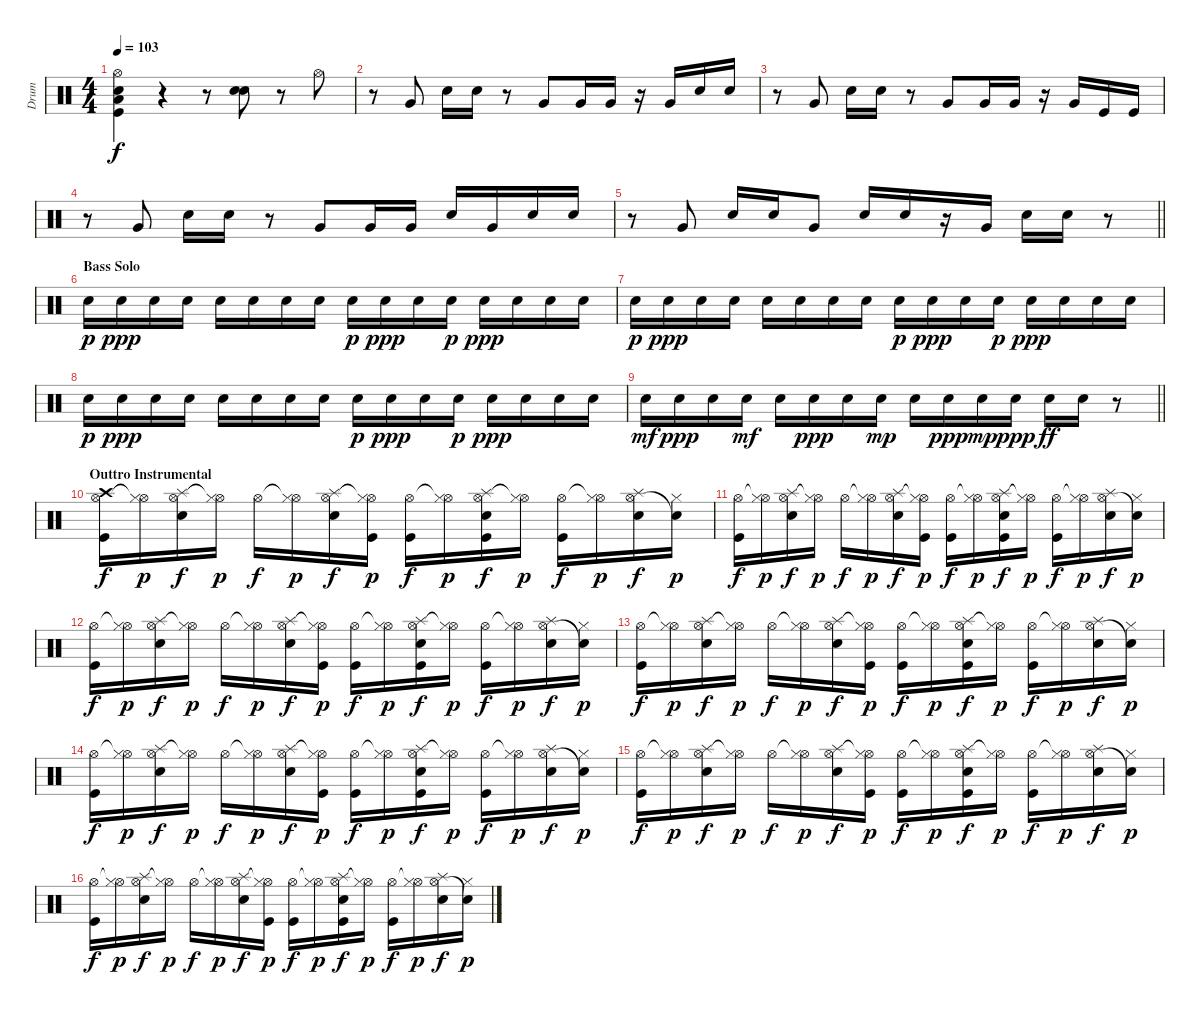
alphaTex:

\track ("Drum" "Drum") {instrument percussion}
\staff {score}
\articulation defaults
\ts (4 4)
\tempo 103
\clef neutral
\ks c
("Hi-Hat (open)" "Snare (hit) 2" "Low Tom (hit)" "Kick (hit)").4{dy f} r.4 r.8 ("Snare (hit) 2" "Electric Snare (hit)").8 r.8 "Hi-Hat (open)".8 |
r.8 "Very Low Tom (hit)".8 "Snare (hit) 2".16 "Snare (hit) 2".16 r.8 "Very Low Tom (hit)".8 "Very Low Tom (hit)".16 "Very Low Tom (hit)".16 r.16 "Very Low Tom (hit)".16 "Snare (hit) 2".16 "Snare (hit) 2".16 |
r.8 "Very Low Tom (hit)".8 "Snare (hit) 2".16 "Snare (hit) 2".16 r.8 "Very Low Tom (hit)".8 "Very Low Tom (hit)".16 "Very Low Tom (hit)".16 r.16 "Very Low Tom (hit)".16 "Kick (hit)".16 "Kick (hit)".16 |
r.8 "Very Low Tom (hit)".8 "Snare (hit) 2".16 "Snare (hit) 2".16 r.8 "Very Low Tom (hit)".8 "Very Low Tom (hit)".16 "Very Low Tom (hit)".16 "Snare (hit) 2".16 "Very Low Tom (hit)".16 "Snare (hit) 2".16 "Snare (hit) 2".16 |
\barLineRight lightlight
r.8 "Very Low Tom (hit)".8 "Snare (hit) 2".16 "Snare (hit) 2".16 "Very Low Tom (hit)".8 "Snare (hit) 2".16 "Snare (hit) 2".16 r.16 "Very Low Tom (hit)".16 "Snare (hit) 2".16 "Snare (hit) 2".16 r.8 |
\section ("" "Bass Solo")
"Snare (hit) 2".16{dy p} "Snare (hit) 2".16{dy ppp} "Snare (hit) 2".16 "Snare (hit) 2".16 "Snare (hit) 2".16 "Snare (hit) 2".16 "Snare (hit) 2".16 "Snare (hit) 2".16 "Snare (hit) 2".16{dy p} "Snare (hit) 2".16{dy ppp} "Snare (hit) 2".16 "Snare (hit) 2".16{dy p} "Snare (hit) 2".16{dy ppp} "Snare (hit) 2".16 "Snare (hit) 2".16 "Snare (hit) 2".16 |
"Snare (hit) 2".16{dy p} "Snare (hit) 2".16{dy ppp} "Snare (hit) 2".16 "Snare (hit) 2".16 "Snare (hit) 2".16 "Snare (hit) 2".16 "Snare (hit) 2".16 "Snare (hit) 2".16 "Snare (hit) 2".16{dy p} "Snare (hit) 2".16{dy ppp} "Snare (hit) 2".16 "Snare (hit) 2".16{dy p} "Snare (hit) 2".16{dy ppp} "Snare (hit) 2".16 "Snare (hit) 2".16 "Snare (hit) 2".16 |
"Snare (hit) 2".16{dy p} "Snare (hit) 2".16{dy ppp} "Snare (hit) 2".16 "Snare (hit) 2".16 "Snare (hit) 2".16 "Snare (hit) 2".16 "Snare (hit) 2".16 "Snare (hit) 2".16 "Snare (hit) 2".16{dy p} "Snare (hit) 2".16{dy ppp} "Snare (hit) 2".16 "Snare (hit) 2".16{dy p} "Snare (hit) 2".16{dy ppp} "Snare (hit) 2".16 "Snare (hit) 2".16 "Snare (hit) 2".16 |
\barLineRight lightlight "Snare (hit) 2".16{dy mf} "Snare (hit) 2".16{dy ppp} "Snare (hit) 2".16 "Snare (hit) 2".16{dy mf} "Snare (hit) 2".16 "Snare (hit) 2".16{dy ppp} "Snare (hit) 2".16 "Snare (hit) 2".16{dy mp} "Snare (hit) 2".16 "Snare (hit) 2".16{dy ppp} "Snare (hit) 2".16{dy mp} "Snare (hit) 2".16{dy ppp} "Snare (hit) 2".16{dy ff} "Snare (hit) 2".16
r.8 |
\section ("" "Outtro Instrumental")
("Hi-Hat (open)" "Crash high (hit)" "Kick (hit)").16{dy f} ("Hi-Hat (open)"{t} "Hi-Hat (closed)").16{dy p} ("Hi-Hat (open)" "Splash (hit)" "Snare (hit) 2").16{dy f} ("Hi-Hat (open)"{t} "Hi-Hat (closed)").16{dy p} "Hi-Hat (open)".16{dy f} ("Hi-Hat (open)"{t} "Hi-Hat (closed)").16{dy p} ("Hi-Hat (open)" "Splash (hit)" "Snare (hit) 2").16{dy f} ("Hi-Hat (open)"{t} "Hi-Hat (closed)" "Kick (hit)").16{dy p} ("Hi-Hat (open)" "Kick (hit)").16{dy f} ("Hi-Hat (open)"{t} "Hi-Hat (closed)").16{dy p} ("Hi-Hat (open)" "Splash (hit)" "Snare (hit) 2" "Kick (hit)").16{dy f} ("Hi-Hat (open)"{t} "Hi-Hat (closed)").16{dy p} ("Hi-Hat (open)" "Kick (hit)").16{dy f} ("Hi-Hat (open)"{t} "Hi-Hat (closed)").16{dy p} ("Hi-Hat (open)" "Splash (hit)" "Snare (hit) 2").16{dy f} ("Snare (hit)"{t} "Hi-Hat (closed)").16{dy p} |
("Hi-Hat (open)" "Kick (hit)").16{dy f} ("Hi-Hat (open)"{t} "Hi-Hat (closed)").16{dy p} ("Hi-Hat (open)" "Splash (hit)" "Snare (hit) 2").16{dy f} ("Hi-Hat (open)"{t} "Hi-Hat (closed)").16{dy p} "Hi-Hat (open)".16{dy f} ("Hi-Hat (open)"{t} "Hi-Hat (closed)").16{dy p} ("Hi-Hat (open)" "Splash (hit)" "Snare (hit) 2").16{dy f} ("Hi-Hat (open)"{t} "Hi-Hat (closed)" "Kick (hit)").16{dy p} ("Hi-Hat (open)" "Kick (hit)").16{dy f} ("Hi-Hat (open)"{t} "Hi-Hat (closed)").16{dy p} ("Hi-Hat (open)" "Splash (hit)" "Snare (hit) 2" "Kick (hit)").16{dy f} ("Hi-Hat (open)"{t} "Hi-Hat (closed)").16{dy p} ("Hi-Hat (open)" "Kick (hit)").16{dy f} ("Hi-Hat (open)"{t} "Hi-Hat (closed)").16{dy p} ("Hi-Hat (open)" "Splash (hit)" "Snare (hit) 2").16{dy f} ("Snare (hit)"{t} "Hi-Hat (closed)").16{dy p} |
("Hi-Hat (open)" "Kick (hit)").16{dy f} ("Hi-Hat (open)"{t} "Hi-Hat (closed)").16{dy p} ("Hi-Hat (open)" "Splash (hit)" "Snare (hit) 2").16{dy f} ("Hi-Hat (open)"{t} "Hi-Hat (closed)").16{dy p} "Hi-Hat (open)".16{dy f} ("Hi-Hat (open)"{t} "Hi-Hat (closed)").16{dy p} ("Hi-Hat (open)" "Splash (hit)" "Snare (hit) 2").16{dy f} ("Hi-Hat (open)"{t} "Hi-Hat (closed)" "Kick (hit)").16{dy p} ("Hi-Hat (open)" "Kick (hit)").16{dy f} ("Hi-Hat (open)"{t} "Hi-Hat (closed)").16{dy p} ("Hi-Hat (open)" "Splash (hit)" "Snare (hit) 2" "Kick (hit)").16{dy f} ("Hi-Hat (open)"{t} "Hi-Hat (closed)").16{dy p} ("Hi-Hat (open)" "Kick (hit)").16{dy f} ("Hi-Hat (open)"{t} "Hi-Hat (closed)").16{dy p} ("Hi-Hat (open)" "Splash (hit)" "Snare (hit) 2").16{dy f} ("Snare (hit)"{t} "Hi-Hat (closed)").16{dy p} |
("Hi-Hat (open)" "Kick (hit)").16{dy f} ("Hi-Hat (open)"{t} "Hi-Hat (closed)").16{dy p} ("Hi-Hat (open)" "Splash (hit)" "Snare (hit) 2").16{dy f} ("Hi-Hat (open)"{t} "Hi-Hat (closed)").16{dy p} "Hi-Hat (open)".16{dy f} ("Hi-Hat (open)"{t} "Hi-Hat (closed)").16{dy p} ("Hi-Hat (open)" "Splash (hit)" "Snare (hit) 2").16{dy f} ("Hi-Hat (open)"{t} "Hi-Hat (closed)" "Kick (hit)").16{dy p} ("Hi-Hat (open)" "Kick (hit)").16{dy f} ("Hi-Hat (open)"{t} "Hi-Hat (closed)").16{dy p} ("Hi-Hat (open)" "Splash (hit)" "Snare (hit) 2" "Kick (hit)").16{dy f} ("Hi-Hat (open)"{t} "Hi-Hat (closed)").16{dy p} ("Hi-Hat (open)" "Kick (hit)").16{dy f} ("Hi-Hat (open)"{t} "Hi-Hat (closed)").16{dy p} ("Hi-Hat (open)" "Splash (hit)" "Snare (hit) 2").16{dy f} ("Snare (hit)"{t} "Hi-Hat (closed)").16{dy p} |
("Hi-Hat (open)" "Kick (hit)").16{dy f} ("Hi-Hat (open)"{t} "Hi-Hat (closed)").16{dy p} ("Hi-Hat (open)" "Splash (hit)" "Snare (hit) 2").16{dy f} ("Hi-Hat (open)"{t} "Hi-Hat (closed)").16{dy p} "Hi-Hat (open)".16{dy f} ("Hi-Hat (open)"{t} "Hi-Hat (closed)").16{dy p} ("Hi-Hat (open)" "Splash (hit)" "Snare (hit) 2").16{dy f} ("Hi-Hat (open)"{t} "Hi-Hat (closed)" "Kick (hit)").16{dy p} ("Hi-Hat (open)" "Kick (hit)").16{dy f} ("Hi-Hat (open)"{t} "Hi-Hat (closed)").16{dy p} ("Hi-Hat (open)" "Splash (hit)" "Snare (hit) 2" "Kick (hit)").16{dy f} ("Hi-Hat (open)"{t} "Hi-Hat (closed)").16{dy p} ("Hi-Hat (open)" "Kick (hit)").16{dy f} ("Hi-Hat (open)"{t} "Hi-Hat (closed)").16{dy p} ("Hi-Hat (open)" "Splash (hit)" "Snare (hit) 2").16{dy f} ("Snare (hit)"{t} "Hi-Hat (closed)").16{dy p} |
("Hi-Hat (open)" "Kick (hit)").16{dy f} ("Hi-Hat (open)"{t} "Hi-Hat (closed)").16{dy p} ("Hi-Hat (open)" "Splash (hit)" "Snare (hit) 2").16{dy f} ("Hi-Hat (open)"{t} "Hi-Hat (closed)").16{dy p} "Hi-Hat (open)".16{dy f} ("Hi-Hat (open)"{t} "Hi-Hat (closed)").16{dy p} ("Hi-Hat (open)" "Splash (hit)" "Snare (hit) 2").16{dy f} ("Hi-Hat (open)"{t} "Hi-Hat (closed)" "Kick (hit)").16{dy p} ("Hi-Hat (open)" "Kick (hit)").16{dy f} ("Hi-Hat (open)"{t} "Hi-Hat (closed)").16{dy p} ("Hi-Hat (open)" "Splash (hit)" "Snare (hit) 2" "Kick (hit)").16{dy f} ("Hi-Hat (open)"{t} "Hi-Hat (closed)").16{dy p} ("Hi-Hat (open)" "Kick (hit)").16{dy f} ("Hi-Hat (open)"{t} "Hi-Hat (closed)").16{dy p} ("Hi-Hat (open)" "Splash (hit)" "Snare (hit) 2").16{dy f} ("Snare (hit)"{t} "Hi-Hat (closed)").16{dy p} |
("Hi-Hat (open)" "Kick (hit)").16{dy f} ("Hi-Hat (open)"{t} "Hi-Hat (closed)").16{dy p} ("Hi-Hat (open)" "Splash (hit)" "Snare (hit) 2").16{dy f} ("Hi-Hat (open)"{t} "Hi-Hat (closed)").16{dy p} "Hi-Hat (open)".16{dy f} ("Hi-Hat (open)"{t} "Hi-Hat (closed)").16{dy p} ("Hi-Hat (open)" "Splash (hit)" "Snare (hit) 2").16{dy f} ("Hi-Hat (open)"{t} "Hi-Hat (closed)" "Kick (hit)").16{dy p} ("Hi-Hat (open)" "Kick (hit)").16{dy f} ("Hi-Hat (open)"{t} "Hi-Hat (closed)").16{dy p} ("Hi-Hat (open)" "Splash (hit)" "Snare (hit) 2" "Kick (hit)").16{dy f} ("Hi-Hat (open)"{t} "Hi-Hat (closed)").16{dy p} ("Hi-Hat (open)" "Kick (hit)").16{dy f} ("Hi-Hat (open)"{t} "Hi-Hat (closed)").16{dy p} ("Hi-Hat (open)" "Splash (hit)" "Snare (hit) 2").16{dy f} ("Snare (hit)"{t} "Hi-Hat (closed)").16{dy p}
